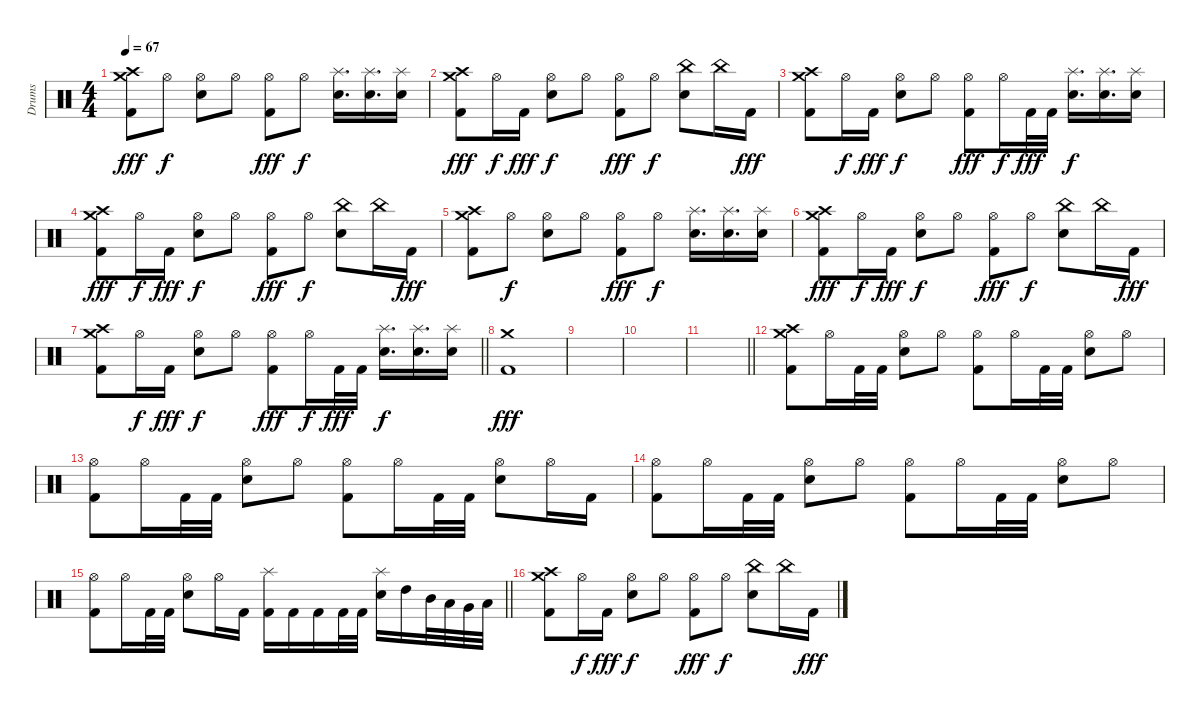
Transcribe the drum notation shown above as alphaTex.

\track ("Drums" "Drums") {instrument percussion}
\staff {score}
\articulation defaults
\ts (4 4)
\tempo 67
\clef neutral
\ks c
("Kick (hit) 2" "Crash high (hit)" "Crash medium (hit)").8{dy fff} "Hi-Hat (open)".8{dy f} ("Electric Snare (hit)" "Hi-Hat (open)").8 "Hi-Hat (open)".8 ("Kick (hit) 2" "Hi-Hat (open)").8{dy fff} "Hi-Hat (open)".8{dy f} ("Electric Snare (hit)" "Splash (hit)").16{d} ("Electric Snare (hit)" "Splash (hit)").16{d} ("Electric Snare (hit)" "Splash (hit)").16 |
("Kick (hit) 2" "Crash high (hit)" "Crash medium (hit)").8{dy fff} "Hi-Hat (open)".16{dy f} "Kick (hit) 2".16{dy fff} ("Electric Snare (hit)" "Hi-Hat (open)").8{dy f} "Hi-Hat (open)".8 ("Kick (hit) 2" "Hi-Hat (open)").8{dy fff} "Hi-Hat (open)".8{dy f} ("Electric Snare (hit)" "China (hit)").8 "China (hit)".16 "Kick (hit) 2".16{dy fff} |
("Kick (hit) 2" "Crash high (hit)" "Crash medium (hit)").8 "Hi-Hat (open)".16{dy f} "Kick (hit) 2".16{dy fff} ("Electric Snare (hit)" "Hi-Hat (open)").8{dy f} "Hi-Hat (open)".8 ("Kick (hit) 2" "Hi-Hat (open)").8{dy fff} "Hi-Hat (open)".16{dy f} "Kick (hit) 2".32{dy fff} "Kick (hit) 2".32 ("Electric Snare (hit)" "Splash (hit)").16{d dy f} ("Electric Snare (hit)" "Splash (hit)").16{d} ("Electric Snare (hit)" "Splash (hit)").16 |
("Kick (hit) 2" "Crash high (hit)" "Crash medium (hit)").8{dy fff} "Hi-Hat (open)".16{dy f} "Kick (hit) 2".16{dy fff} ("Electric Snare (hit)" "Hi-Hat (open)").8{dy f} "Hi-Hat (open)".8 ("Kick (hit) 2" "Hi-Hat (open)").8{dy fff} "Hi-Hat (open)".8{dy f} ("Electric Snare (hit)" "China (hit)").8 "China (hit)".16 "Kick (hit) 2".16{dy fff} |
("Kick (hit) 2" "Crash high (hit)" "Crash medium (hit)").8 "Hi-Hat (open)".8{dy f} ("Electric Snare (hit)" "Hi-Hat (open)").8 "Hi-Hat (open)".8 ("Kick (hit) 2" "Hi-Hat (open)").8{dy fff} "Hi-Hat (open)".8{dy f} ("Electric Snare (hit)" "Splash (hit)").16{d} ("Electric Snare (hit)" "Splash (hit)").16{d} ("Electric Snare (hit)" "Splash (hit)").16 |
("Kick (hit) 2" "Crash high (hit)" "Crash medium (hit)").8{dy fff} "Hi-Hat (open)".16{dy f} "Kick (hit) 2".16{dy fff} ("Electric Snare (hit)" "Hi-Hat (open)").8{dy f} "Hi-Hat (open)".8 ("Kick (hit) 2" "Hi-Hat (open)").8{dy fff} "Hi-Hat (open)".8{dy f} ("Electric Snare (hit)" "China (hit)").8 "China (hit)".16 "Kick (hit) 2".16{dy fff} |
\barLineRight lightlight
("Kick (hit) 2" "Crash high (hit)" "Crash medium (hit)").8 "Hi-Hat (open)".16{dy f} "Kick (hit) 2".16{dy fff} ("Electric Snare (hit)" "Hi-Hat (open)").8{dy f} "Hi-Hat (open)".8 ("Kick (hit) 2" "Hi-Hat (open)").8{dy fff} "Hi-Hat (open)".16{dy f} "Kick (hit) 2".32{dy fff} "Kick (hit) 2".32 ("Electric Snare (hit)" "Splash (hit)").16{d dy f} ("Electric Snare (hit)" "Splash (hit)").16{d} ("Electric Snare (hit)" "Splash (hit)").16 |
("Kick (hit) 2" "Crash medium (hit)").1{dy fff} |
|
|
\barLineRight lightlight
|
("Kick (hit) 2" "Crash high (hit)" "Crash medium (hit)").8 "Hi-Hat (open)".16 "Kick (hit) 2".32 "Kick (hit) 2".32 ("Electric Snare (hit)" "Hi-Hat (open)").8 "Hi-Hat (open)".8 ("Kick (hit) 2" "Hi-Hat (open)").8 "Hi-Hat (open)".16 "Kick (hit) 2".32 "Kick (hit) 2".32 ("Electric Snare (hit)" "Hi-Hat (open)").8 "Hi-Hat (open)".8 |
("Kick (hit) 2" "Hi-Hat (open)").8 "Hi-Hat (open)".16 "Kick (hit) 2".32 "Kick (hit) 2".32 ("Electric Snare (hit)" "Hi-Hat (open)").8 "Hi-Hat (open)".8 ("Kick (hit) 2" "Hi-Hat (open)").8 "Hi-Hat (open)".16 "Kick (hit) 2".32 "Kick (hit) 2".32 ("Electric Snare (hit)" "Hi-Hat (open)").8 "Hi-Hat (open)".16 "Kick (hit) 2".16 |
("Kick (hit) 2" "Hi-Hat (open)").8 "Hi-Hat (open)".16 "Kick (hit) 2".32 "Kick (hit) 2".32 ("Electric Snare (hit)" "Hi-Hat (open)").8 "Hi-Hat (open)".8 ("Kick (hit) 2" "Hi-Hat (open)").8 "Hi-Hat (open)".16 "Kick (hit) 2".32 "Kick (hit) 2".32 ("Electric Snare (hit)" "Hi-Hat (open)").8 "Hi-Hat (open)".8 |
\barLineRight lightlight
("Kick (hit) 2" "Hi-Hat (open)").8 "Hi-Hat (open)".16 "Kick (hit) 2".32 "Kick (hit) 2".32 ("Electric Snare (hit)" "Hi-Hat (open)").8 "Hi-Hat (open)".16 "Kick (hit) 2".16 ("Kick (hit) 2" "Splash (hit)").16 "Kick (hit) 2".16 "Kick (hit) 2".16 "Kick (hit) 2".32 "Kick (hit) 2".32 ("Electric Snare (hit)" "Splash (hit)").16 "High Tom (hit)".16 "Mid Tom (hit)".32 "Low Tom (hit)".32 "Very Low Tom (hit)".32 "Low Floor Tom (hit)".32 |
("Kick (hit) 2" "Crash high (hit)" "Crash medium (hit)").8 "Hi-Hat (open)".16{dy f} "Kick (hit) 2".16{dy fff} ("Electric Snare (hit)" "Hi-Hat (open)").8{dy f} "Hi-Hat (open)".8 ("Kick (hit) 2" "Hi-Hat (open)").8{dy fff} "Hi-Hat (open)".8{dy f} ("Electric Snare (hit)" "China (hit)").8 "China (hit)".16 "Kick (hit) 2".16{dy fff}
